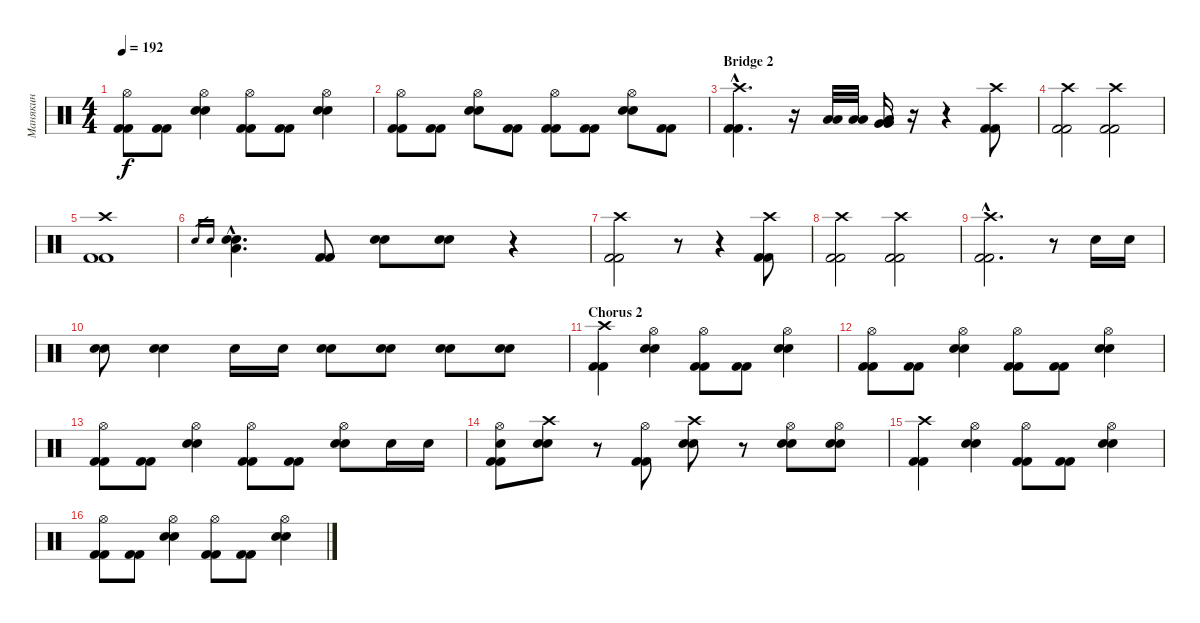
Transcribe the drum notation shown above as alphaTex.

\track ("Манякин" "Манякин") {instrument percussion}
\staff {score}
\articulation defaults
\ts (4 4)
\tempo 192
\clef neutral
\ks c
("Hi-Hat (open)" "Kick (hit) 2" "Kick (hit) 2").8{dy f} ("Kick (hit) 2" "Kick (hit) 2").8 ("Hi-Hat (open)" "Electric Snare (hit)" "Electric Snare (hit)").4 ("Hi-Hat (open)" "Kick (hit) 2" "Kick (hit) 2").8 ("Kick (hit) 2" "Kick (hit) 2").8 ("Hi-Hat (open)" "Electric Snare (hit)" "Electric Snare (hit)").4 |
("Hi-Hat (open)" "Kick (hit) 2" "Kick (hit) 2").8 ("Kick (hit) 2" "Kick (hit) 2").8 ("Hi-Hat (open)" "Electric Snare (hit)" "Electric Snare (hit)").8 ("Kick (hit) 2" "Kick (hit) 2").8 ("Hi-Hat (open)" "Kick (hit) 2" "Kick (hit) 2").8 ("Kick (hit) 2" "Kick (hit) 2").8 ("Hi-Hat (open)" "Electric Snare (hit)" "Electric Snare (hit)").8 ("Kick (hit) 2" "Kick (hit) 2").8 |
\section ("" "Bridge 2")
("Crash high (hit)"{hac} "Kick (hit) 2"{hac} "Kick (hit) 2"{hac}).4{d} r.16 ("Low Tom (hit)" "Low Tom (hit)").32 ("Low Tom (hit)" "Low Tom (hit)").32 ("Low Tom (hit)" "Very Low Tom (hit)" "Very Low Tom (hit)").16 r.16 r.4 ("Crash high (hit)" "Kick (hit) 2" "Kick (hit) 2").8 |
("Crash high (hit)" "Kick (hit) 2" "Kick (hit) 2").2 ("Crash high (hit)" "Kick (hit) 2" "Kick (hit) 2").2 |
("Crash high (hit)" "Kick (hit) 2" "Kick (hit) 2").1 |
"Electric Snare (hit)".16{gr} "Electric Snare (hit)".16{gr} ("Electric Snare (hit)"{hac} "Electric Snare (hit)"{hac} "Low Tom (hit)"{hac}).4{d} ("Kick (hit) 2" "Kick (hit) 2").8 ("Electric Snare (hit)" "Electric Snare (hit)").8 ("Electric Snare (hit)" "Electric Snare (hit)").8 r.4 |
("Crash high (hit)" "Kick (hit) 2" "Kick (hit) 2").2 r.8 r.4 ("Crash high (hit)" "Kick (hit) 2" "Kick (hit) 2").8 |
("Crash high (hit)" "Kick (hit) 2" "Kick (hit) 2").2 ("Crash high (hit)" "Kick (hit) 2" "Kick (hit) 2").2 |
("Crash high (hit)"{hac} "Kick (hit) 2"{hac} "Kick (hit) 2"{hac}).2{d} r.8 "Electric Snare (hit)".16 "Electric Snare (hit)".16 |
("Electric Snare (hit)" "Electric Snare (hit)").8 ("Electric Snare (hit)" "Electric Snare (hit)").4 "Electric Snare (hit)".16 "Electric Snare (hit)".16 ("Electric Snare (hit)" "Electric Snare (hit)").8 ("Electric Snare (hit)" "Electric Snare (hit)").8 ("Electric Snare (hit)" "Electric Snare (hit)").8 ("Electric Snare (hit)" "Electric Snare (hit)").8 |
\section ("" "Chorus 2")
("Crash high (hit)" "Kick (hit) 2" "Kick (hit) 2").4 ("Hi-Hat (open)" "Electric Snare (hit)" "Electric Snare (hit)").4 ("Hi-Hat (open)" "Kick (hit) 2" "Kick (hit) 2").8 ("Kick (hit) 2" "Kick (hit) 2").8 ("Hi-Hat (open)" "Electric Snare (hit)" "Electric Snare (hit)").4 |
("Hi-Hat (open)" "Kick (hit) 2" "Kick (hit) 2").8 ("Kick (hit) 2" "Kick (hit) 2").8 ("Hi-Hat (open)" "Electric Snare (hit)" "Electric Snare (hit)").4 ("Hi-Hat (open)" "Kick (hit) 2" "Kick (hit) 2").8 ("Kick (hit) 2" "Kick (hit) 2").8 ("Hi-Hat (open)" "Electric Snare (hit)" "Electric Snare (hit)").4 |
("Hi-Hat (open)" "Kick (hit) 2" "Kick (hit) 2").8 ("Kick (hit) 2" "Kick (hit) 2").8 ("Hi-Hat (open)" "Electric Snare (hit)" "Electric Snare (hit)").4 ("Hi-Hat (open)" "Kick (hit) 2" "Kick (hit) 2").8 ("Kick (hit) 2" "Kick (hit) 2").8 ("Hi-Hat (open)" "Electric Snare (hit)" "Electric Snare (hit)").8 "Electric Snare (hit)".16 "Electric Snare (hit)".16 |
("Hi-Hat (open)" "Electric Snare (hit)" "Kick (hit) 2" "Kick (hit) 2").8 ("Crash high (hit)" "Electric Snare (hit)" "Electric Snare (hit)").8 r.8 ("Hi-Hat (open)" "Kick (hit) 2" "Kick (hit) 2").8 ("Crash high (hit)" "Electric Snare (hit)" "Electric Snare (hit)").8 r.8 ("Hi-Hat (open)" "Electric Snare (hit)" "Electric Snare (hit)").8 ("Hi-Hat (open)" "Electric Snare (hit)" "Electric Snare (hit)").8 |
("Crash high (hit)" "Kick (hit) 2" "Kick (hit) 2").4 ("Hi-Hat (open)" "Electric Snare (hit)" "Electric Snare (hit)").4 ("Hi-Hat (open)" "Kick (hit) 2" "Kick (hit) 2").8 ("Kick (hit) 2" "Kick (hit) 2").8 ("Hi-Hat (open)" "Electric Snare (hit)" "Electric Snare (hit)").4 |
("Hi-Hat (open)" "Kick (hit) 2" "Kick (hit) 2").8 ("Kick (hit) 2" "Kick (hit) 2").8 ("Hi-Hat (open)" "Electric Snare (hit)" "Electric Snare (hit)").4 ("Hi-Hat (open)" "Kick (hit) 2" "Kick (hit) 2").8 ("Kick (hit) 2" "Kick (hit) 2").8 ("Hi-Hat (open)" "Electric Snare (hit)" "Electric Snare (hit)").4
